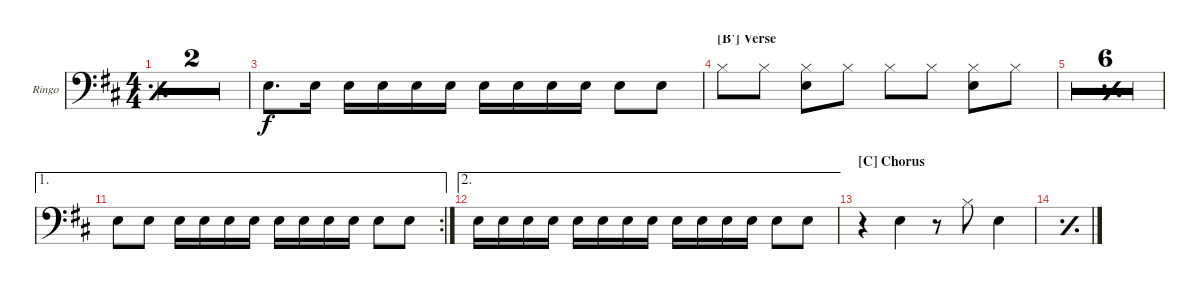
\defaultSystemsLayout 4
\bracketExtendMode groupsimilarinstruments
\firstSystemTrackNameOrientation horizontal
\otherSystemsTrackNameOrientation horizontal
\track ("Ringo Starr - Arms" "Ringo") {multiBarRest instrument percussion}
\staff {score}
\articulation defaults
\ts (4 4)
\tempo 111
\clef f4
\simile simple
\ks d
|
|
\simile none "Snare (hit) 2".8{d} "Snare (hit) 2".16 "Snare (hit) 2".16 "Snare (hit) 2".16 "Snare (hit) 2".16 "Snare (hit) 2".16 "Snare (hit) 2".16 "Snare (hit) 2".16 "Snare (hit) 2".16 "Snare (hit) 2".16 "Snare (hit) 2".8 "Snare (hit) 2".8
|
\section ("B'" "Verse")
"Hi-Hat (closed)".8 "Hi-Hat (closed)".8 ("Hi-Hat (closed)" "Snare (hit) 2").8 "Hi-Hat (closed)".8 "Hi-Hat (closed)".8 "Hi-Hat (closed)".8 ("Hi-Hat (closed)" "Snare (hit) 2").8 "Hi-Hat (closed)".8 |
\simile simple
|
|
|
|
|
|
\ae 1
\rc 2
\simile none "Snare (hit) 2".8 "Snare (hit) 2".8 "Snare (hit) 2".16 "Snare (hit) 2".16 "Snare (hit) 2".16 "Snare (hit) 2".16 "Snare (hit) 2".16 "Snare (hit) 2".16 "Snare (hit) 2".16 "Snare (hit) 2".16 "Snare (hit) 2".8 "Snare (hit) 2".8
|
\ae 2 "Snare (hit) 2".16 "Snare (hit) 2".16 "Snare (hit) 2".16 "Snare (hit) 2".16 "Snare (hit) 2".16 "Snare (hit) 2".16 "Snare (hit) 2".16 "Snare (hit) 2".16 "Snare (hit) 2".16 "Snare (hit) 2".16 "Snare (hit) 2".16 "Snare (hit) 2".16 "Snare (hit) 2".8 "Snare (hit) 2".8
|
\section ("C" "Chorus")
r.4 "Snare (hit) 2".4 r.8 "Hi-Hat (closed)".8 "Snare (hit) 2".4 |
\simile simple
